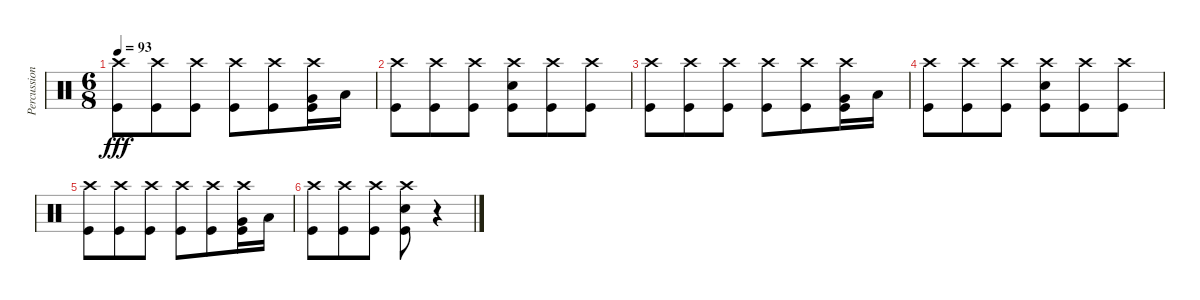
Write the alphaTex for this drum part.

\track ("Percussion" "Percussion") {instrument percussion}
\staff {score}
\articulation defaults
\ts (6 8)
\tempo 93
\clef neutral
\ks c
("Crash high (hit)" "Kick (hit)").8{dy fff} ("Crash high (hit)" "Kick (hit)").8 ("Crash high (hit)" "Kick (hit)").8 ("Crash high (hit)" "Kick (hit)").8 ("Crash high (hit)" "Kick (hit)").8 ("Crash high (hit)" "Very Low Tom (hit)" "Kick (hit)").16 "Low Floor Tom (hit)".16 |
("Crash high (hit)" "Kick (hit)").8 ("Crash high (hit)" "Kick (hit)").8 ("Crash high (hit)" "Kick (hit)").8 ("Crash high (hit)" "Snare (hit) 2" "Kick (hit)").8 ("Crash high (hit)" "Kick (hit)").8 ("Crash high (hit)" "Kick (hit)").8 |
("Crash high (hit)" "Kick (hit)").8 ("Crash high (hit)" "Kick (hit)").8 ("Crash high (hit)" "Kick (hit)").8 ("Crash high (hit)" "Kick (hit)").8 ("Crash high (hit)" "Kick (hit)").8 ("Crash high (hit)" "Very Low Tom (hit)" "Kick (hit)").16 "Low Floor Tom (hit)".16 |
("Crash high (hit)" "Kick (hit)").8 ("Crash high (hit)" "Kick (hit)").8 ("Crash high (hit)" "Kick (hit)").8 ("Crash high (hit)" "Snare (hit) 2" "Kick (hit)").8 ("Crash high (hit)" "Kick (hit)").8 ("Crash high (hit)" "Kick (hit)").8 |
("Crash high (hit)" "Kick (hit)").8 ("Crash high (hit)" "Kick (hit)").8 ("Crash high (hit)" "Kick (hit)").8 ("Crash high (hit)" "Kick (hit)").8 ("Crash high (hit)" "Kick (hit)").8 ("Crash high (hit)" "Very Low Tom (hit)" "Kick (hit)").16 "Low Floor Tom (hit)".16 |
("Crash high (hit)" "Kick (hit)").8 ("Crash high (hit)" "Kick (hit)").8 ("Crash high (hit)" "Kick (hit)").8 ("Crash high (hit)" "Snare (hit) 2" "Kick (hit)").8 r.4
